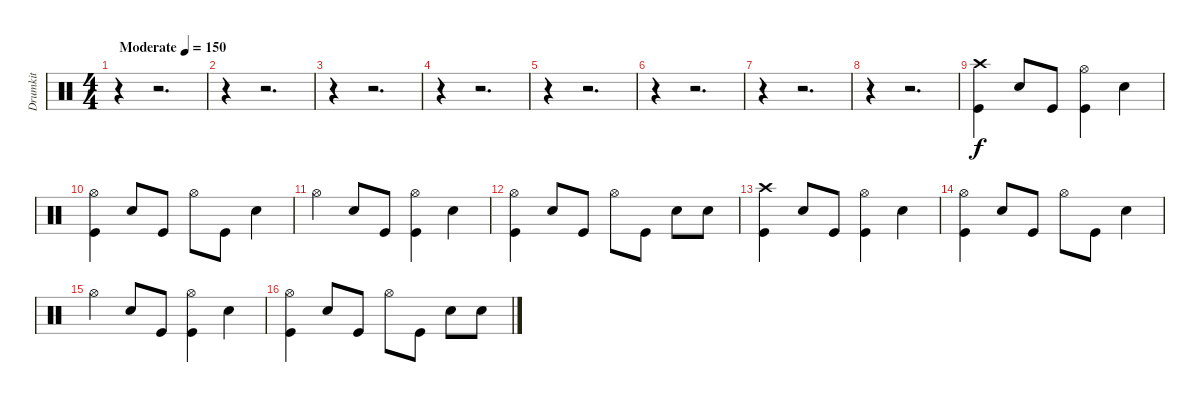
\track ("Drumkit" "Drumkit") {instrument percussion}
\staff {score}
\articulation defaults
\ts (4 4)
\tempo (150 "Moderate")
\clef neutral
\ks c
r.4{dy f} r.2{d} |
r.4 r.2{d} |
r.4 r.2{d} |
r.4 r.2{d} |
r.4 r.2{d} |
r.4 r.2{d} |
r.4 r.2{d} |
r.4 r.2{d} |
("Crash high (hit)" "Kick (hit)").4 "Snare (hit) 2".8 "Kick (hit)".8 ("Hi-Hat (open)" "Kick (hit)").4 "Snare (hit) 2".4 |
("Hi-Hat (open)" "Kick (hit)").4 "Snare (hit) 2".8 "Kick (hit)".8 "Hi-Hat (open)".8 "Kick (hit)".8 "Snare (hit) 2".4 |
"Hi-Hat (open)".4 "Snare (hit) 2".8 "Kick (hit)".8 ("Hi-Hat (open)" "Kick (hit)").4 "Snare (hit) 2".4 |
("Hi-Hat (open)" "Kick (hit)").4 "Snare (hit) 2".8 "Kick (hit)".8 "Hi-Hat (open)".8 "Kick (hit)".8 "Snare (hit) 2".8 "Snare (hit) 2".8 |
("Crash high (hit)" "Kick (hit)").4 "Snare (hit) 2".8 "Kick (hit)".8 ("Hi-Hat (open)" "Kick (hit)").4 "Snare (hit) 2".4 |
("Hi-Hat (open)" "Kick (hit)").4 "Snare (hit) 2".8 "Kick (hit)".8 "Hi-Hat (open)".8 "Kick (hit)".8 "Snare (hit) 2".4 |
"Hi-Hat (open)".4 "Snare (hit) 2".8 "Kick (hit)".8 ("Hi-Hat (open)" "Kick (hit)").4 "Snare (hit) 2".4 |
("Hi-Hat (open)" "Kick (hit)").4 "Snare (hit) 2".8 "Kick (hit)".8 "Hi-Hat (open)".8 "Kick (hit)".8 "Snare (hit) 2".8 "Snare (hit) 2".8
